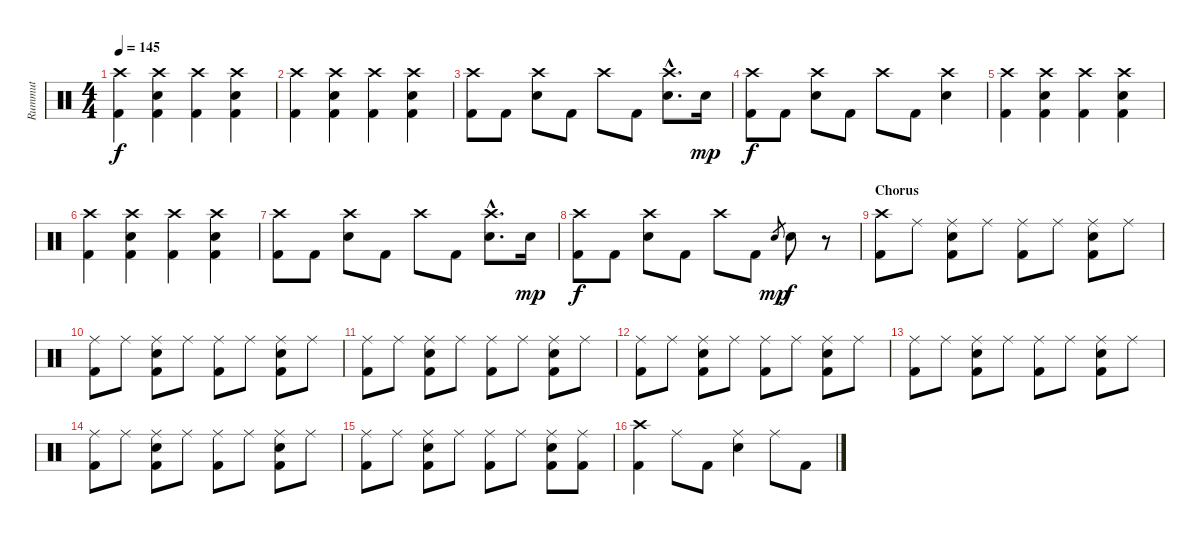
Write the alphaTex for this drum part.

\track ("Rummut" "Rummut") {instrument percussion}
\staff {score}
\articulation defaults
\ts (4 4)
\tempo 145
\clef neutral
\ks c
("Crash high (hit)" "Kick (hit) 2").4{dy f} ("Crash high (hit)" "Electric Snare (hit)" "Kick (hit) 2").4 ("Crash high (hit)" "Kick (hit) 2").4 ("Crash high (hit)" "Electric Snare (hit)" "Kick (hit) 2").4 |
("Crash high (hit)" "Kick (hit) 2").4 ("Crash high (hit)" "Electric Snare (hit)" "Kick (hit) 2").4 ("Crash high (hit)" "Kick (hit) 2").4 ("Crash high (hit)" "Electric Snare (hit)" "Kick (hit) 2").4 |
("Crash high (hit)" "Kick (hit) 2").8 "Kick (hit) 2".8 ("Crash high (hit)" "Electric Snare (hit)").8 "Kick (hit) 2".8 "Crash high (hit)".8 "Kick (hit) 2".8 ("Crash high (hit)"{hac} "Electric Snare (hit)"{hac}).8{d} "Electric Snare (hit)".16{dy mp} |
("Crash high (hit)" "Kick (hit) 2").8{dy f} "Kick (hit) 2".8 ("Crash high (hit)" "Electric Snare (hit)").8 "Kick (hit) 2".8 "Crash high (hit)".8 "Kick (hit) 2".8 ("Crash high (hit)" "Electric Snare (hit)").4 |
("Crash high (hit)" "Kick (hit) 2").4 ("Crash high (hit)" "Electric Snare (hit)" "Kick (hit) 2").4 ("Crash high (hit)" "Kick (hit) 2").4 ("Crash high (hit)" "Electric Snare (hit)" "Kick (hit) 2").4 |
("Crash high (hit)" "Kick (hit) 2").4 ("Crash high (hit)" "Electric Snare (hit)" "Kick (hit) 2").4 ("Crash high (hit)" "Kick (hit) 2").4 ("Crash high (hit)" "Electric Snare (hit)" "Kick (hit) 2").4 |
("Crash high (hit)" "Kick (hit) 2").8 "Kick (hit) 2".8 ("Crash high (hit)" "Electric Snare (hit)").8 "Kick (hit) 2".8 "Crash high (hit)".8 "Kick (hit) 2".8 ("Crash high (hit)"{hac} "Electric Snare (hit)"{hac}).8{d} "Electric Snare (hit)".16{dy mp} |
("Crash high (hit)" "Kick (hit) 2").8{dy f} "Kick (hit) 2".8 ("Crash high (hit)" "Electric Snare (hit)").8 "Kick (hit) 2".8 "Crash high (hit)".8 "Kick (hit) 2".8 "Electric Snare (hit)".8{gr dy mp} "Electric Snare (hit)".8{dy f} r.8 |
\section ("" "Chorus")
("Crash high (hit)" "Kick (hit) 2").8 "Ride (middle)".8 ("Ride (middle)" "Electric Snare (hit)" "Kick (hit) 2").8 "Ride (middle)".8 ("Ride (middle)" "Kick (hit) 2").8 "Ride (middle)".8 ("Ride (middle)" "Electric Snare (hit)" "Kick (hit) 2").8 "Ride (middle)".8 |
("Ride (middle)" "Kick (hit) 2").8 "Ride (middle)".8 ("Ride (middle)" "Electric Snare (hit)" "Kick (hit) 2").8 "Ride (middle)".8 ("Ride (middle)" "Kick (hit) 2").8 "Ride (middle)".8 ("Ride (middle)" "Electric Snare (hit)" "Kick (hit) 2").8 "Ride (middle)".8 |
("Ride (middle)" "Kick (hit) 2").8 "Ride (middle)".8 ("Ride (middle)" "Electric Snare (hit)" "Kick (hit) 2").8 "Ride (middle)".8 ("Ride (middle)" "Kick (hit) 2").8 "Ride (middle)".8 ("Ride (middle)" "Electric Snare (hit)" "Kick (hit) 2").8 "Ride (middle)".8 |
("Ride (middle)" "Kick (hit) 2").8 "Ride (middle)".8 ("Ride (middle)" "Electric Snare (hit)" "Kick (hit) 2").8 "Ride (middle)".8 ("Ride (middle)" "Kick (hit) 2").8 "Ride (middle)".8 ("Ride (middle)" "Electric Snare (hit)" "Kick (hit) 2").8 "Ride (middle)".8 |
("Ride (middle)" "Kick (hit) 2").8 "Ride (middle)".8 ("Ride (middle)" "Electric Snare (hit)" "Kick (hit) 2").8 "Ride (middle)".8 ("Ride (middle)" "Kick (hit) 2").8 "Ride (middle)".8 ("Ride (middle)" "Electric Snare (hit)" "Kick (hit) 2").8 "Ride (middle)".8 |
("Ride (middle)" "Kick (hit) 2").8 "Ride (middle)".8 ("Ride (middle)" "Electric Snare (hit)" "Kick (hit) 2").8 "Ride (middle)".8 ("Ride (middle)" "Kick (hit) 2").8 "Ride (middle)".8 ("Ride (middle)" "Electric Snare (hit)" "Kick (hit) 2").8 "Ride (middle)".8 |
("Ride (middle)" "Kick (hit) 2").8 "Ride (middle)".8 ("Ride (middle)" "Electric Snare (hit)" "Kick (hit) 2").8 "Ride (middle)".8 ("Ride (middle)" "Kick (hit) 2").8 "Ride (middle)".8 ("Ride (middle)" "Electric Snare (hit)" "Kick (hit) 2").8 ("Ride (middle)" "Kick (hit) 2").8 |
("Crash high (hit)" "Kick (hit) 2").4 "Ride (middle)".8 "Kick (hit) 2".8 ("Ride (middle)" "Electric Snare (hit)").4 "Ride (middle)".8 "Kick (hit) 2".8
